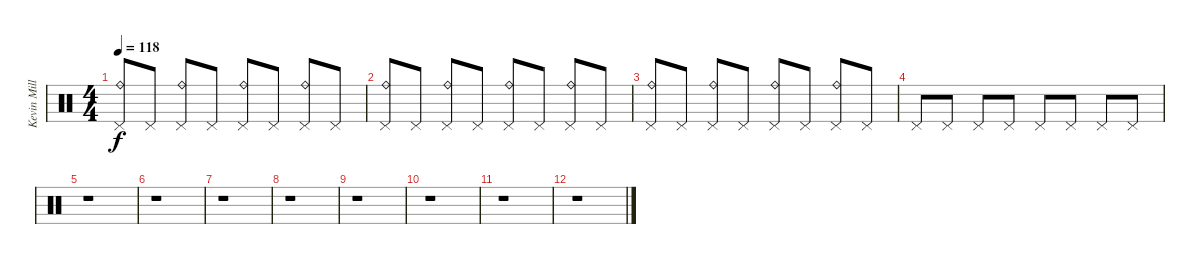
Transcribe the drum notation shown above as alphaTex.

\track ("Kevin Miller (Drums)" "Kevin Mill") {instrument percussion}
\staff {score}
\articulation defaults
\ts (4 4)
\tempo 118
\clef neutral
\ks c
("Pedal Hi-Hat (hit)" "Ride (bell)").8{dy f} "Pedal Hi-Hat (hit)".8 ("Pedal Hi-Hat (hit)" "Ride (bell)").8 "Pedal Hi-Hat (hit)".8 ("Pedal Hi-Hat (hit)" "Ride (bell)").8 "Pedal Hi-Hat (hit)".8 ("Pedal Hi-Hat (hit)" "Ride (bell)").8 "Pedal Hi-Hat (hit)".8 |
("Pedal Hi-Hat (hit)" "Ride (bell)").8 "Pedal Hi-Hat (hit)".8 ("Pedal Hi-Hat (hit)" "Ride (bell)").8 "Pedal Hi-Hat (hit)".8 ("Pedal Hi-Hat (hit)" "Ride (bell)").8 "Pedal Hi-Hat (hit)".8 ("Pedal Hi-Hat (hit)" "Ride (bell)").8 "Pedal Hi-Hat (hit)".8 |
("Pedal Hi-Hat (hit)" "Ride (bell)").8 "Pedal Hi-Hat (hit)".8 ("Pedal Hi-Hat (hit)" "Ride (bell)").8 "Pedal Hi-Hat (hit)".8 ("Pedal Hi-Hat (hit)" "Ride (bell)").8 "Pedal Hi-Hat (hit)".8 ("Pedal Hi-Hat (hit)" "Ride (bell)").8 "Pedal Hi-Hat (hit)".8 |
"Pedal Hi-Hat (hit)".8 "Pedal Hi-Hat (hit)".8 "Pedal Hi-Hat (hit)".8 "Pedal Hi-Hat (hit)".8 "Pedal Hi-Hat (hit)".8 "Pedal Hi-Hat (hit)".8 "Pedal Hi-Hat (hit)".8 "Pedal Hi-Hat (hit)".8 |
r.1 |
r.1 |
r.1 |
r.1 |
r.1 |
r.1 |
r.1 |
r.1
